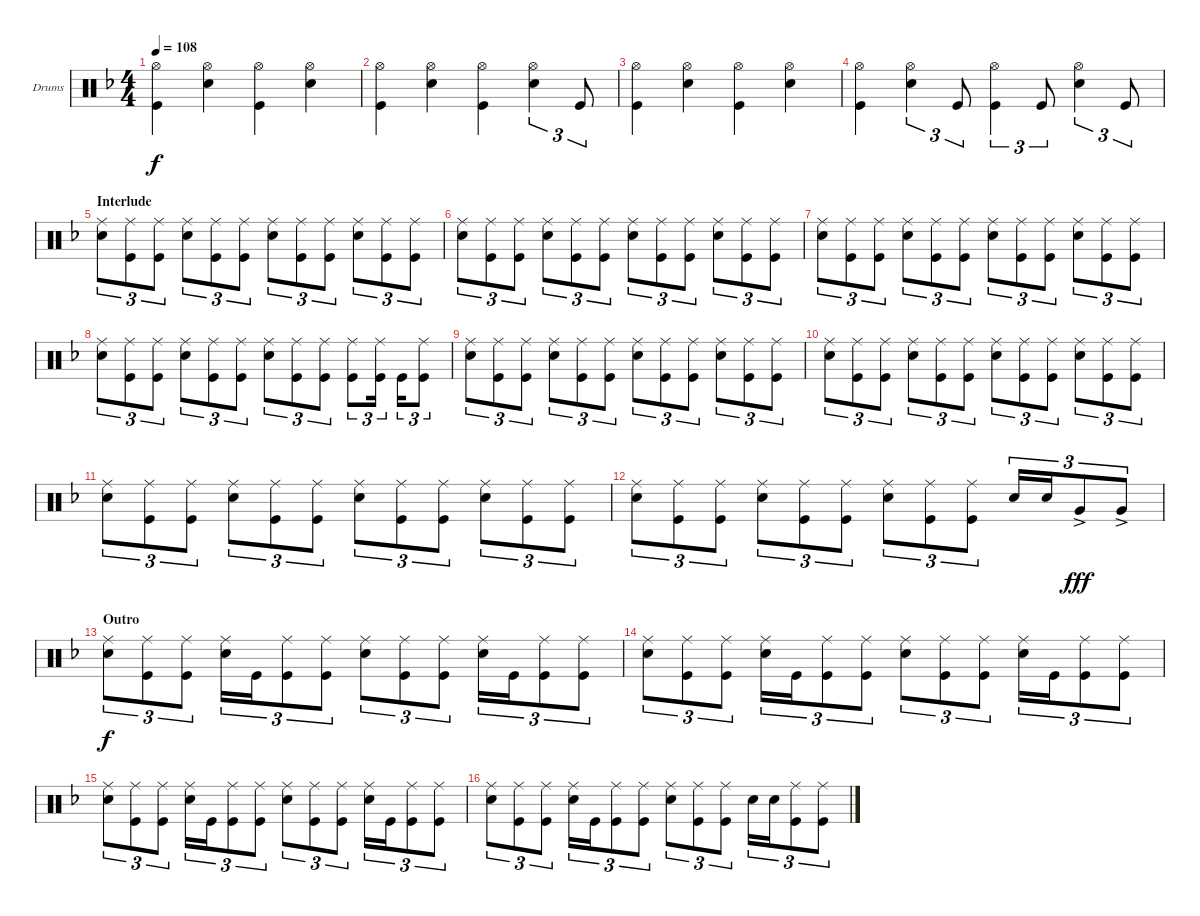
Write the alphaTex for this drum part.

\defaultSystemsLayout 4
\bracketExtendMode groupsimilarinstruments
\firstSystemTrackNameOrientation horizontal
\otherSystemsTrackNameOrientation horizontal
\track ("Drumkit" "Drums") {instrument percussion}
\staff {score}
\articulation defaults
\ts (4 4)
\tempo 108
\clef neutral
\ks f
("Hi-Hat (open)" "Kick (hit)").4{dy f} ("Snare (hit) 2" "Hi-Hat (open)").4 ("Hi-Hat (open)" "Kick (hit)").4 ("Snare (hit) 2" "Hi-Hat (open)").4 |
("Hi-Hat (open)" "Kick (hit)").4 ("Snare (hit) 2" "Hi-Hat (open)").4 ("Hi-Hat (open)" "Kick (hit)").4 ("Snare (hit) 2" "Hi-Hat (open)").4{tu (3 2)} "Kick (hit)".8{tu (3 2)} |
("Hi-Hat (open)" "Kick (hit)").4 ("Snare (hit) 2" "Hi-Hat (open)").4 ("Hi-Hat (open)" "Kick (hit)").4 ("Snare (hit) 2" "Hi-Hat (open)").4 |
("Hi-Hat (open)" "Kick (hit)").4 ("Snare (hit) 2" "Hi-Hat (open)").4{tu (3 2)} "Kick (hit)".8{tu (3 2)} ("Hi-Hat (open)" "Kick (hit)").4{tu (3 2)} "Kick (hit)".8{tu (3 2)} ("Snare (hit) 2" "Hi-Hat (open)").4{tu (3 2)} "Kick (hit)".8{tu (3 2)} |
\section ("" "Interlude")
("Snare (hit) 2" "Ride (middle)").8{tu (3 2)} ("Kick (hit)" "Ride (middle)").8{tu (3 2)} ("Kick (hit)" "Ride (middle)").8{tu (3 2)} ("Snare (hit) 2" "Ride (middle)").8{tu (3 2)} ("Kick (hit)" "Ride (middle)").8{tu (3 2)} ("Kick (hit)" "Ride (middle)").8{tu (3 2)} ("Snare (hit) 2" "Ride (middle)").8{tu (3 2)} ("Kick (hit)" "Ride (middle)").8{tu (3 2)} ("Kick (hit)" "Ride (middle)").8{tu (3 2)} ("Snare (hit) 2" "Ride (middle)").8{tu (3 2)} ("Kick (hit)" "Ride (middle)").8{tu (3 2)} ("Kick (hit)" "Ride (middle)").8{tu (3 2)} |
("Snare (hit) 2" "Ride (middle)").8{tu (3 2)} ("Kick (hit)" "Ride (middle)").8{tu (3 2)} ("Kick (hit)" "Ride (middle)").8{tu (3 2)} ("Snare (hit) 2" "Ride (middle)").8{tu (3 2)} ("Kick (hit)" "Ride (middle)").8{tu (3 2)} ("Kick (hit)" "Ride (middle)").8{tu (3 2)} ("Snare (hit) 2" "Ride (middle)").8{tu (3 2)} ("Kick (hit)" "Ride (middle)").8{tu (3 2)} ("Kick (hit)" "Ride (middle)").8{tu (3 2)} ("Snare (hit) 2" "Ride (middle)").8{tu (3 2)} ("Kick (hit)" "Ride (middle)").8{tu (3 2)} ("Kick (hit)" "Ride (middle)").8{tu (3 2)} |
("Snare (hit) 2" "Ride (middle)").8{tu (3 2)} ("Kick (hit)" "Ride (middle)").8{tu (3 2)} ("Kick (hit)" "Ride (middle)").8{tu (3 2)} ("Snare (hit) 2" "Ride (middle)").8{tu (3 2)} ("Kick (hit)" "Ride (middle)").8{tu (3 2)} ("Kick (hit)" "Ride (middle)").8{tu (3 2)} ("Snare (hit) 2" "Ride (middle)").8{tu (3 2)} ("Kick (hit)" "Ride (middle)").8{tu (3 2)} ("Kick (hit)" "Ride (middle)").8{tu (3 2)} ("Snare (hit) 2" "Ride (middle)").8{tu (3 2)} ("Kick (hit)" "Ride (middle)").8{tu (3 2)} ("Kick (hit)" "Ride (middle)").8{tu (3 2)} |
("Snare (hit) 2" "Ride (middle)").8{tu (3 2)} ("Kick (hit)" "Ride (middle)").8{tu (3 2)} ("Kick (hit)" "Ride (middle)").8{tu (3 2)} ("Snare (hit) 2" "Ride (middle)").8{tu (3 2)} ("Kick (hit)" "Ride (middle)").8{tu (3 2)} ("Kick (hit)" "Ride (middle)").8{tu (3 2)} ("Snare (hit) 2" "Ride (middle)").8{tu (3 2)} ("Kick (hit)" "Ride (middle)").8{tu (3 2)} ("Kick (hit)" "Ride (middle)").8{tu (3 2)} ("Ride (middle)" "Kick (hit)").8{tu (3 2)} ("Kick (hit)" "Ride (middle)").16{tu (3 2)} "Kick (hit)".16{tu (3 2)} ("Kick (hit)" "Ride (middle)").8{tu (3 2)} |
("Snare (hit) 2" "Ride (middle)").8{tu (3 2)} ("Kick (hit)" "Ride (middle)").8{tu (3 2)} ("Kick (hit)" "Ride (middle)").8{tu (3 2)} ("Snare (hit) 2" "Ride (middle)").8{tu (3 2)} ("Kick (hit)" "Ride (middle)").8{tu (3 2)} ("Kick (hit)" "Ride (middle)").8{tu (3 2)} ("Snare (hit) 2" "Ride (middle)").8{tu (3 2)} ("Kick (hit)" "Ride (middle)").8{tu (3 2)} ("Kick (hit)" "Ride (middle)").8{tu (3 2)} ("Snare (hit) 2" "Ride (middle)").8{tu (3 2)} ("Kick (hit)" "Ride (middle)").8{tu (3 2)} ("Kick (hit)" "Ride (middle)").8{tu (3 2)} |
("Snare (hit) 2" "Ride (middle)").8{tu (3 2)} ("Kick (hit)" "Ride (middle)").8{tu (3 2)} ("Kick (hit)" "Ride (middle)").8{tu (3 2)} ("Snare (hit) 2" "Ride (middle)").8{tu (3 2)} ("Kick (hit)" "Ride (middle)").8{tu (3 2)} ("Kick (hit)" "Ride (middle)").8{tu (3 2)} ("Snare (hit) 2" "Ride (middle)").8{tu (3 2)} ("Kick (hit)" "Ride (middle)").8{tu (3 2)} ("Kick (hit)" "Ride (middle)").8{tu (3 2)} ("Snare (hit) 2" "Ride (middle)").8{tu (3 2)} ("Kick (hit)" "Ride (middle)").8{tu (3 2)} ("Kick (hit)" "Ride (middle)").8{tu (3 2)} |
("Snare (hit) 2" "Ride (middle)").8{tu (3 2)} ("Kick (hit)" "Ride (middle)").8{tu (3 2)} ("Kick (hit)" "Ride (middle)").8{tu (3 2)} ("Snare (hit) 2" "Ride (middle)").8{tu (3 2)} ("Kick (hit)" "Ride (middle)").8{tu (3 2)} ("Kick (hit)" "Ride (middle)").8{tu (3 2)} ("Snare (hit) 2" "Ride (middle)").8{tu (3 2)} ("Kick (hit)" "Ride (middle)").8{tu (3 2)} ("Kick (hit)" "Ride (middle)").8{tu (3 2)} ("Snare (hit) 2" "Ride (middle)").8{tu (3 2)} ("Kick (hit)" "Ride (middle)").8{tu (3 2)} ("Kick (hit)" "Ride (middle)").8{tu (3 2)} |
("Snare (hit) 2" "Ride (middle)").8{tu (3 2)} ("Kick (hit)" "Ride (middle)").8{tu (3 2)} ("Kick (hit)" "Ride (middle)").8{tu (3 2)} ("Snare (hit) 2" "Ride (middle)").8{tu (3 2)} ("Kick (hit)" "Ride (middle)").8{tu (3 2)} ("Kick (hit)" "Ride (middle)").8{tu (3 2)} ("Snare (hit) 2" "Ride (middle)").8{tu (3 2)} ("Kick (hit)" "Ride (middle)").8{tu (3 2)} ("Kick (hit)" "Ride (middle)").8{tu (3 2)} "Snare (hit) 2".16{tu (3 2)} "Snare (hit) 2".16{tu (3 2)} "Very Low Tom (hit)"{ac}.8{tu (3 2) dy fff} "Very Low Tom (hit)"{ac}.8{tu (3 2)} |
\section ("" "Outro")
("Snare (hit) 2" "Ride (middle)").8{tu (3 2) dy f} ("Kick (hit)" "Ride (middle)").8{tu (3 2)} ("Kick (hit)" "Ride (middle)").8{tu (3 2)} ("Snare (hit) 2" "Ride (middle)").16{tu (3 2)} "Kick (hit)".16{tu (3 2)} ("Kick (hit)" "Ride (middle)").8{tu (3 2)} ("Kick (hit)" "Ride (middle)").8{tu (3 2)} ("Snare (hit) 2" "Ride (middle)").8{tu (3 2)} ("Kick (hit)" "Ride (middle)").8{tu (3 2)} ("Kick (hit)" "Ride (middle)").8{tu (3 2)} ("Snare (hit) 2" "Ride (middle)").16{tu (3 2)} "Kick (hit)".16{tu (3 2)} ("Kick (hit)" "Ride (middle)").8{tu (3 2)} ("Kick (hit)" "Ride (middle)").8{tu (3 2)} |
("Snare (hit) 2" "Ride (middle)").8{tu (3 2)} ("Kick (hit)" "Ride (middle)").8{tu (3 2)} ("Kick (hit)" "Ride (middle)").8{tu (3 2)} ("Snare (hit) 2" "Ride (middle)").16{tu (3 2)} "Kick (hit)".16{tu (3 2)} ("Kick (hit)" "Ride (middle)").8{tu (3 2)} ("Kick (hit)" "Ride (middle)").8{tu (3 2)} ("Snare (hit) 2" "Ride (middle)").8{tu (3 2)} ("Kick (hit)" "Ride (middle)").8{tu (3 2)} ("Kick (hit)" "Ride (middle)").8{tu (3 2)} ("Snare (hit) 2" "Ride (middle)").16{tu (3 2)} "Kick (hit)".16{tu (3 2)} ("Kick (hit)" "Ride (middle)").8{tu (3 2)} ("Kick (hit)" "Ride (middle)").8{tu (3 2)} |
("Snare (hit) 2" "Ride (middle)").8{tu (3 2)} ("Kick (hit)" "Ride (middle)").8{tu (3 2)} ("Kick (hit)" "Ride (middle)").8{tu (3 2)} ("Snare (hit) 2" "Ride (middle)").16{tu (3 2)} "Kick (hit)".16{tu (3 2)} ("Kick (hit)" "Ride (middle)").8{tu (3 2)} ("Kick (hit)" "Ride (middle)").8{tu (3 2)} ("Snare (hit) 2" "Ride (middle)").8{tu (3 2)} ("Kick (hit)" "Ride (middle)").8{tu (3 2)} ("Kick (hit)" "Ride (middle)").8{tu (3 2)} ("Snare (hit) 2" "Ride (middle)").16{tu (3 2)} "Kick (hit)".16{tu (3 2)} ("Kick (hit)" "Ride (middle)").8{tu (3 2)} ("Kick (hit)" "Ride (middle)").8{tu (3 2)} |
("Snare (hit) 2" "Ride (middle)").8{tu (3 2)} ("Kick (hit)" "Ride (middle)").8{tu (3 2)} ("Kick (hit)" "Ride (middle)").8{tu (3 2)} ("Snare (hit) 2" "Ride (middle)").16{tu (3 2)} "Kick (hit)".16{tu (3 2)} ("Kick (hit)" "Ride (middle)").8{tu (3 2)} ("Kick (hit)" "Ride (middle)").8{tu (3 2)} ("Snare (hit) 2" "Ride (middle)").8{tu (3 2)} ("Kick (hit)" "Ride (middle)").8{tu (3 2)} ("Kick (hit)" "Ride (middle)").8{tu (3 2)} "Snare (hit) 2".16{tu (3 2)} "Snare (hit) 2".16{tu (3 2)} ("Kick (hit)" "Ride (middle)").8{tu (3 2)} ("Kick (hit)" "Ride (middle)").8{tu (3 2)}
